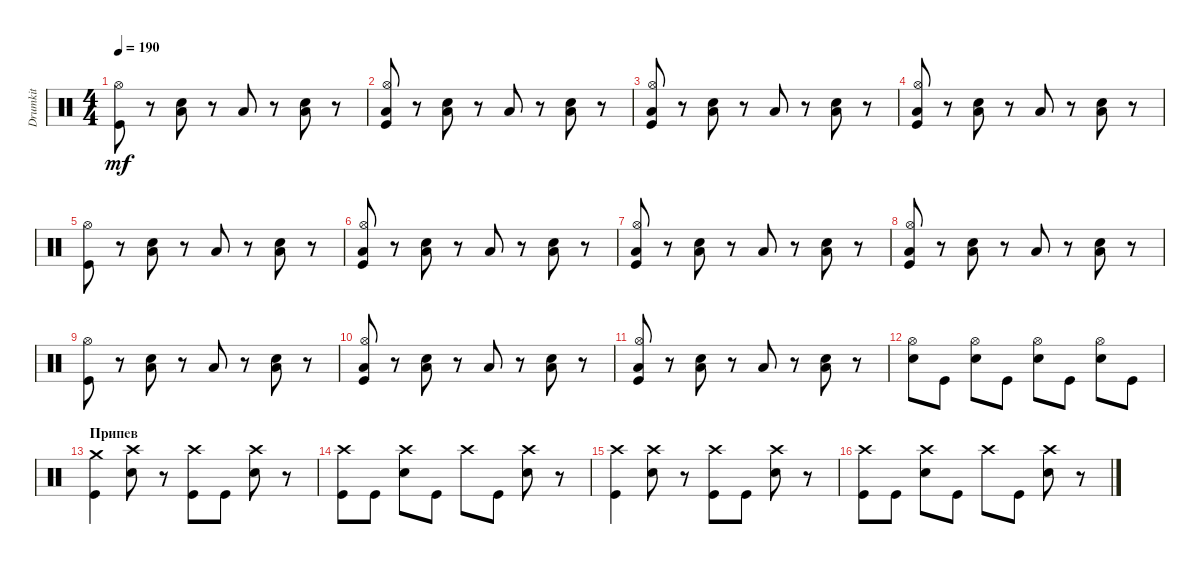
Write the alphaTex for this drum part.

\track ("Drumkit" "Drumkit") {instrument percussion}
\staff {score}
\articulation defaults
\ts (4 4)
\tempo 190
\clef neutral
\ks c
("Kick (hit)" "Hi-Hat (open)").8{dy mf} r.8 ("Snare (hit) 2" "Low Floor Tom (hit)").8 r.8 "Low Floor Tom (hit)".8 r.8 ("Snare (hit) 2" "Low Floor Tom (hit)").8 r.8 |
("Kick (hit)" "Hi-Hat (open)" "Low Floor Tom (hit)").8 r.8 ("Snare (hit) 2" "Low Floor Tom (hit)").8 r.8 "Low Floor Tom (hit)".8 r.8 ("Snare (hit) 2" "Low Floor Tom (hit)").8 r.8 |
("Kick (hit)" "Hi-Hat (open)" "Low Floor Tom (hit)").8 r.8 ("Snare (hit) 2" "Low Floor Tom (hit)").8 r.8 "Low Floor Tom (hit)".8 r.8 ("Snare (hit) 2" "Low Floor Tom (hit)").8 r.8 |
("Kick (hit)" "Hi-Hat (open)" "Low Floor Tom (hit)").8 r.8 ("Snare (hit) 2" "Low Floor Tom (hit)").8 r.8 "Low Floor Tom (hit)".8 r.8 ("Snare (hit) 2" "Low Floor Tom (hit)").8 r.8 |
("Kick (hit)" "Hi-Hat (open)").8 r.8 ("Snare (hit) 2" "Low Floor Tom (hit)").8 r.8 "Low Floor Tom (hit)".8 r.8 ("Snare (hit) 2" "Low Floor Tom (hit)").8 r.8 |
("Kick (hit)" "Hi-Hat (open)" "Low Floor Tom (hit)").8 r.8 ("Snare (hit) 2" "Low Floor Tom (hit)").8 r.8 "Low Floor Tom (hit)".8 r.8 ("Snare (hit) 2" "Low Floor Tom (hit)").8 r.8 |
("Kick (hit)" "Hi-Hat (open)" "Low Floor Tom (hit)").8 r.8 ("Snare (hit) 2" "Low Floor Tom (hit)").8 r.8 "Low Floor Tom (hit)".8 r.8 ("Snare (hit) 2" "Low Floor Tom (hit)").8 r.8 |
("Kick (hit)" "Hi-Hat (open)" "Low Floor Tom (hit)").8 r.8 ("Snare (hit) 2" "Low Floor Tom (hit)").8 r.8 "Low Floor Tom (hit)".8 r.8 ("Snare (hit) 2" "Low Floor Tom (hit)").8 r.8 |
("Kick (hit)" "Hi-Hat (open)").8 r.8 ("Snare (hit) 2" "Low Floor Tom (hit)").8 r.8 "Low Floor Tom (hit)".8 r.8 ("Snare (hit) 2" "Low Floor Tom (hit)").8 r.8 |
("Kick (hit)" "Hi-Hat (open)" "Low Floor Tom (hit)").8 r.8 ("Snare (hit) 2" "Low Floor Tom (hit)").8 r.8 "Low Floor Tom (hit)".8 r.8 ("Snare (hit) 2" "Low Floor Tom (hit)").8 r.8 |
("Kick (hit)" "Hi-Hat (open)" "Low Floor Tom (hit)").8 r.8 ("Snare (hit) 2" "Low Floor Tom (hit)").8 r.8 "Low Floor Tom (hit)".8 r.8 ("Snare (hit) 2" "Low Floor Tom (hit)").8 r.8 |
("Snare (hit) 2" "Hi-Hat (open)").8 "Kick (hit)".8 ("Snare (hit) 2" "Hi-Hat (open)").8 "Kick (hit)".8 ("Snare (hit) 2" "Hi-Hat (open)").8 "Kick (hit)".8 ("Snare (hit) 2" "Hi-Hat (open)").8 "Kick (hit)".8 |
\section ("" "Припев")
("Kick (hit)" "Crash medium (hit)").4 ("Snare (hit) 2" "Crash high (hit)").8 r.8 ("Kick (hit)" "Crash high (hit)").8 "Kick (hit)".8 ("Snare (hit) 2" "Crash high (hit)").8 r.8 |
("Kick (hit)" "Crash high (hit)").8 "Kick (hit)".8 ("Snare (hit) 2" "Crash high (hit)").8 "Kick (hit)".8 "Crash high (hit)".8 "Kick (hit)".8 ("Snare (hit) 2" "Crash high (hit)").8 r.8 |
("Kick (hit)" "Crash high (hit)").4 ("Snare (hit) 2" "Crash high (hit)").8 r.8 ("Kick (hit)" "Crash high (hit)").8 "Kick (hit)".8 ("Snare (hit) 2" "Crash high (hit)").8 r.8 |
("Kick (hit)" "Crash high (hit)").8 "Kick (hit)".8 ("Snare (hit) 2" "Crash high (hit)").8 "Kick (hit)".8 "Crash high (hit)".8 "Kick (hit)".8 ("Snare (hit) 2" "Crash high (hit)").8 r.8
